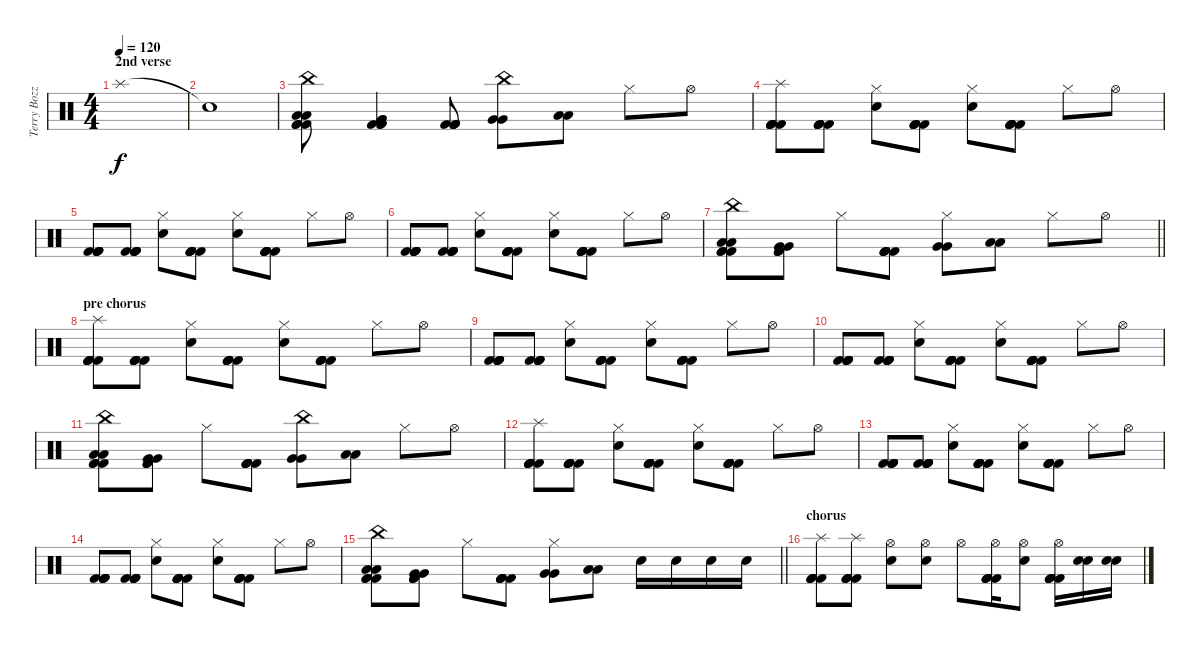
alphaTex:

\track ("Terry Bozzio" "Terry Bozz") {instrument percussion}
\staff {score}
\articulation defaults
\ts (4 4)
\section ("" "2nd verse")
\tempo 120
\clef neutral
\ks c "Splash (hit)".1{dy f}
|
"Snare (hit)"{t}.1 |
("China (hit)" "Low Tom (hit)" "Low Tom (hit)" "Kick (hit) 2" "Kick (hit) 2" "Kick (hit) 2").8 ("Very Low Tom (hit)" "Very Low Tom (hit)" "Kick (hit) 2" "Kick (hit) 2" "Kick (hit) 2").4 ("Kick (hit) 2" "Kick (hit) 2" "Kick (hit) 2" "Kick (hit) 2" "Kick (hit) 2").8 ("China (hit)" "Very Low Tom (hit)" "Very Low Tom (hit)").8 ("Low Floor Tom (hit)" "Low Floor Tom (hit)").8 "Hi-Hat (closed)".8 "Hi-Hat (open)".8 |
("Splash (hit)" "Kick (hit) 2" "Kick (hit) 2" "Kick (hit) 2" "Kick (hit) 2" "Kick (hit) 2").8 ("Kick (hit) 2" "Kick (hit) 2" "Kick (hit) 2" "Kick (hit) 2" "Kick (hit) 2").8 ("Hi-Hat (closed)" "Snare (hit) 2").8 ("Kick (hit) 2" "Kick (hit) 2" "Kick (hit) 2" "Kick (hit) 2" "Kick (hit) 2").8 ("Hi-Hat (closed)" "Snare (hit) 2").8 ("Kick (hit) 2" "Kick (hit) 2" "Kick (hit) 2" "Kick (hit) 2" "Kick (hit) 2").8 "Hi-Hat (closed)".8 "Hi-Hat (open)".8 |
("Kick (hit) 2" "Kick (hit) 2" "Kick (hit) 2" "Kick (hit) 2" "Kick (hit) 2").8 ("Kick (hit) 2" "Kick (hit) 2" "Kick (hit) 2" "Kick (hit) 2" "Kick (hit) 2").8 ("Hi-Hat (closed)" "Snare (hit) 2").8 ("Kick (hit) 2" "Kick (hit) 2" "Kick (hit) 2" "Kick (hit) 2" "Kick (hit) 2").8 ("Hi-Hat (closed)" "Snare (hit) 2").8 ("Kick (hit) 2" "Kick (hit) 2" "Kick (hit) 2" "Kick (hit) 2" "Kick (hit) 2").8 "Hi-Hat (closed)".8 "Hi-Hat (open)".8 |
("Kick (hit) 2" "Kick (hit) 2" "Kick (hit) 2" "Kick (hit) 2" "Kick (hit) 2").8 ("Kick (hit) 2" "Kick (hit) 2" "Kick (hit) 2" "Kick (hit) 2" "Kick (hit) 2").8 ("Hi-Hat (closed)" "Snare (hit) 2").8 ("Kick (hit) 2" "Kick (hit) 2" "Kick (hit) 2" "Kick (hit) 2" "Kick (hit) 2").8 ("Hi-Hat (closed)" "Snare (hit) 2").8 ("Kick (hit) 2" "Kick (hit) 2" "Kick (hit) 2" "Kick (hit) 2" "Kick (hit) 2").8 "Hi-Hat (closed)".8 "Hi-Hat (open)".8 |
\barLineRight lightlight
("China (hit)" "Low Tom (hit)" "Low Tom (hit)" "Kick (hit) 2" "Kick (hit) 2" "Kick (hit) 2").8 ("Very Low Tom (hit)" "Very Low Tom (hit)" "Kick (hit) 2" "Kick (hit) 2" "Kick (hit) 2").8 "Hi-Hat (closed)".8 ("Kick (hit) 2" "Kick (hit) 2" "Kick (hit) 2" "Kick (hit) 2" "Kick (hit) 2").8 ("Hi-Hat (closed)" "Very Low Tom (hit)" "Very Low Tom (hit)").8 ("Low Floor Tom (hit)" "Low Floor Tom (hit)").8 "Hi-Hat (closed)".8 "Hi-Hat (open)".8 |
\section ("" "pre chorus")
("Splash (hit)" "Kick (hit) 2" "Kick (hit) 2" "Kick (hit) 2" "Kick (hit) 2" "Kick (hit) 2").8 ("Kick (hit) 2" "Kick (hit) 2" "Kick (hit) 2" "Kick (hit) 2" "Kick (hit) 2").8 ("Hi-Hat (closed)" "Snare (hit) 2").8 ("Kick (hit) 2" "Kick (hit) 2" "Kick (hit) 2" "Kick (hit) 2" "Kick (hit) 2").8 ("Hi-Hat (closed)" "Snare (hit) 2").8 ("Kick (hit) 2" "Kick (hit) 2" "Kick (hit) 2" "Kick (hit) 2" "Kick (hit) 2").8 "Hi-Hat (closed)".8 "Hi-Hat (open)".8 |
("Kick (hit) 2" "Kick (hit) 2" "Kick (hit) 2" "Kick (hit) 2" "Kick (hit) 2").8 ("Kick (hit) 2" "Kick (hit) 2" "Kick (hit) 2" "Kick (hit) 2" "Kick (hit) 2").8 ("Hi-Hat (closed)" "Snare (hit) 2").8 ("Kick (hit) 2" "Kick (hit) 2" "Kick (hit) 2" "Kick (hit) 2" "Kick (hit) 2").8 ("Hi-Hat (closed)" "Snare (hit) 2").8 ("Kick (hit) 2" "Kick (hit) 2" "Kick (hit) 2" "Kick (hit) 2" "Kick (hit) 2").8 "Hi-Hat (closed)".8 "Hi-Hat (open)".8 |
("Kick (hit) 2" "Kick (hit) 2" "Kick (hit) 2" "Kick (hit) 2" "Kick (hit) 2").8 ("Kick (hit) 2" "Kick (hit) 2" "Kick (hit) 2" "Kick (hit) 2" "Kick (hit) 2").8 ("Hi-Hat (closed)" "Snare (hit) 2").8 ("Kick (hit) 2" "Kick (hit) 2" "Kick (hit) 2" "Kick (hit) 2" "Kick (hit) 2").8 ("Hi-Hat (closed)" "Snare (hit) 2").8 ("Kick (hit) 2" "Kick (hit) 2" "Kick (hit) 2" "Kick (hit) 2" "Kick (hit) 2").8 "Hi-Hat (closed)".8 "Hi-Hat (open)".8 |
("China (hit)" "Low Tom (hit)" "Low Tom (hit)" "Kick (hit) 2" "Kick (hit) 2" "Kick (hit) 2").8 ("Very Low Tom (hit)" "Very Low Tom (hit)" "Kick (hit) 2" "Kick (hit) 2" "Kick (hit) 2").8 "Hi-Hat (closed)".8 ("Kick (hit) 2" "Kick (hit) 2" "Kick (hit) 2" "Kick (hit) 2" "Kick (hit) 2").8 ("China (hit)" "Very Low Tom (hit)" "Very Low Tom (hit)").8 ("Low Floor Tom (hit)" "Low Floor Tom (hit)").8 "Hi-Hat (closed)".8 "Hi-Hat (open)".8 |
("Splash (hit)" "Kick (hit) 2" "Kick (hit) 2" "Kick (hit) 2" "Kick (hit) 2" "Kick (hit) 2").8 ("Kick (hit) 2" "Kick (hit) 2" "Kick (hit) 2" "Kick (hit) 2" "Kick (hit) 2").8 ("Hi-Hat (closed)" "Snare (hit) 2").8 ("Kick (hit) 2" "Kick (hit) 2" "Kick (hit) 2" "Kick (hit) 2" "Kick (hit) 2").8 ("Hi-Hat (closed)" "Snare (hit) 2").8 ("Kick (hit) 2" "Kick (hit) 2" "Kick (hit) 2" "Kick (hit) 2" "Kick (hit) 2").8 "Hi-Hat (closed)".8 "Hi-Hat (open)".8 |
("Kick (hit) 2" "Kick (hit) 2" "Kick (hit) 2" "Kick (hit) 2" "Kick (hit) 2").8 ("Kick (hit) 2" "Kick (hit) 2" "Kick (hit) 2" "Kick (hit) 2" "Kick (hit) 2").8 ("Hi-Hat (closed)" "Snare (hit) 2").8 ("Kick (hit) 2" "Kick (hit) 2" "Kick (hit) 2" "Kick (hit) 2" "Kick (hit) 2").8 ("Hi-Hat (closed)" "Snare (hit) 2").8 ("Kick (hit) 2" "Kick (hit) 2" "Kick (hit) 2" "Kick (hit) 2" "Kick (hit) 2").8 "Hi-Hat (closed)".8 "Hi-Hat (open)".8 |
("Kick (hit) 2" "Kick (hit) 2" "Kick (hit) 2" "Kick (hit) 2" "Kick (hit) 2").8 ("Kick (hit) 2" "Kick (hit) 2" "Kick (hit) 2" "Kick (hit) 2" "Kick (hit) 2").8 ("Hi-Hat (closed)" "Snare (hit) 2").8 ("Kick (hit) 2" "Kick (hit) 2" "Kick (hit) 2" "Kick (hit) 2" "Kick (hit) 2").8 ("Hi-Hat (closed)" "Snare (hit) 2").8 ("Kick (hit) 2" "Kick (hit) 2" "Kick (hit) 2" "Kick (hit) 2" "Kick (hit) 2").8 "Hi-Hat (closed)".8 "Hi-Hat (open)".8 |
\barLineRight lightlight
("China (hit)" "Low Tom (hit)" "Low Tom (hit)" "Kick (hit) 2" "Kick (hit) 2" "Kick (hit) 2").8 ("Very Low Tom (hit)" "Very Low Tom (hit)" "Kick (hit) 2" "Kick (hit) 2" "Kick (hit) 2").8 "Hi-Hat (closed)".8 ("Kick (hit) 2" "Kick (hit) 2" "Kick (hit) 2" "Kick (hit) 2" "Kick (hit) 2").8 ("Hi-Hat (closed)" "Very Low Tom (hit)" "Very Low Tom (hit)").8 ("Low Floor Tom (hit)" "Low Floor Tom (hit)").8 "Snare (hit) 2".16 "Snare (hit) 2".16 "Snare (hit) 2".16 "Snare (hit) 2".16 |
\section ("" "chorus")
("Splash (hit)" "Kick (hit) 2" "Kick (hit) 2" "Kick (hit) 2" "Kick (hit) 2").8 ("Splash (hit)" "Kick (hit) 2" "Kick (hit) 2" "Kick (hit) 2" "Kick (hit) 2").8 ("Hi-Hat (open)" "Snare (hit) 2").8 ("Hi-Hat (open)" "Snare (hit) 2").8 "Hi-Hat (open)".8 ("Hi-Hat (open)" "Kick (hit) 2" "Kick (hit) 2" "Kick (hit) 2" "Kick (hit) 2").16 ("Hi-Hat (open)" "Snare (hit) 2").8 ("Hi-Hat (open)" "Kick (hit) 2" "Kick (hit) 2" "Kick (hit) 2" "Kick (hit) 2").16 ("Snare (hit) 2" "Snare (hit) 2").16 ("Snare (hit) 2" "Snare (hit) 2").16
